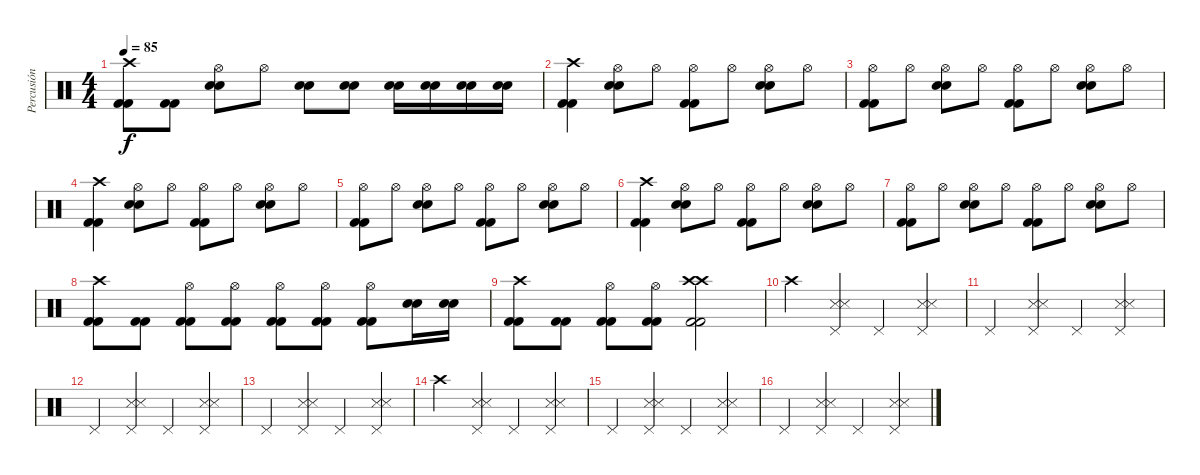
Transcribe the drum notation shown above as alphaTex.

\track ("Percusión" "Percusión") {instrument percussion}
\staff {score}
\articulation defaults
\ts (4 4)
\tempo 85
\clef neutral
\ks c
("Crash high (hit)" "Kick (hit) 2" "Kick (hit) 2").8{dy f} ("Kick (hit) 2" "Kick (hit) 2").8 ("Hi-Hat (open)" "Electric Snare (hit)" "Electric Snare (hit)").8 "Hi-Hat (open)".8 ("Electric Snare (hit)" "Electric Snare (hit)").8 ("Electric Snare (hit)" "Electric Snare (hit)").8 ("Electric Snare (hit)" "Electric Snare (hit)").16 ("Electric Snare (hit)" "Electric Snare (hit)").16 ("Electric Snare (hit)" "Electric Snare (hit)").16 ("Electric Snare (hit)" "Electric Snare (hit)").16 |
("Crash high (hit)" "Kick (hit) 2" "Kick (hit) 2").4 ("Hi-Hat (open)" "Electric Snare (hit)" "Electric Snare (hit)").8 "Hi-Hat (open)".8 ("Hi-Hat (open)" "Kick (hit) 2" "Kick (hit) 2").8 "Hi-Hat (open)".8 ("Hi-Hat (open)" "Electric Snare (hit)" "Electric Snare (hit)").8 "Hi-Hat (open)".8 |
("Hi-Hat (open)" "Kick (hit) 2" "Kick (hit) 2").8 "Hi-Hat (open)".8 ("Hi-Hat (open)" "Electric Snare (hit)" "Electric Snare (hit)").8 "Hi-Hat (open)".8 ("Hi-Hat (open)" "Kick (hit) 2" "Kick (hit) 2").8 "Hi-Hat (open)".8 ("Hi-Hat (open)" "Electric Snare (hit)" "Electric Snare (hit)").8 "Hi-Hat (open)".8 |
("Crash high (hit)" "Kick (hit) 2" "Kick (hit) 2").4 ("Hi-Hat (open)" "Electric Snare (hit)" "Electric Snare (hit)").8 "Hi-Hat (open)".8 ("Hi-Hat (open)" "Kick (hit) 2" "Kick (hit) 2").8 "Hi-Hat (open)".8 ("Hi-Hat (open)" "Electric Snare (hit)" "Electric Snare (hit)").8 "Hi-Hat (open)".8 |
("Hi-Hat (open)" "Kick (hit) 2" "Kick (hit) 2").8 "Hi-Hat (open)".8 ("Hi-Hat (open)" "Electric Snare (hit)" "Electric Snare (hit)").8 "Hi-Hat (open)".8 ("Hi-Hat (open)" "Kick (hit) 2" "Kick (hit) 2").8 "Hi-Hat (open)".8 ("Hi-Hat (open)" "Electric Snare (hit)" "Electric Snare (hit)").8 "Hi-Hat (open)".8 |
("Crash high (hit)" "Kick (hit) 2" "Kick (hit) 2").4 ("Hi-Hat (open)" "Electric Snare (hit)" "Electric Snare (hit)").8 "Hi-Hat (open)".8 ("Hi-Hat (open)" "Kick (hit) 2" "Kick (hit) 2").8 "Hi-Hat (open)".8 ("Hi-Hat (open)" "Electric Snare (hit)" "Electric Snare (hit)").8 "Hi-Hat (open)".8 |
("Hi-Hat (open)" "Kick (hit) 2" "Kick (hit) 2").8 "Hi-Hat (open)".8 ("Hi-Hat (open)" "Electric Snare (hit)" "Electric Snare (hit)").8 "Hi-Hat (open)".8 ("Hi-Hat (open)" "Kick (hit) 2" "Kick (hit) 2").8 "Hi-Hat (open)".8 ("Hi-Hat (open)" "Electric Snare (hit)" "Electric Snare (hit)").8 "Hi-Hat (open)".8 |
("Crash high (hit)" "Kick (hit) 2" "Kick (hit) 2").8 ("Kick (hit) 2" "Kick (hit) 2").8 ("Hi-Hat (open)" "Kick (hit) 2" "Kick (hit) 2").8 ("Hi-Hat (open)" "Kick (hit) 2" "Kick (hit) 2").8 ("Hi-Hat (open)" "Kick (hit) 2" "Kick (hit) 2").8 ("Hi-Hat (open)" "Kick (hit) 2" "Kick (hit) 2").8 ("Hi-Hat (open)" "Kick (hit) 2" "Kick (hit) 2").8 ("Electric Snare (hit)" "Electric Snare (hit)").16 ("Electric Snare (hit)" "Electric Snare (hit)").16 |
("Crash high (hit)" "Kick (hit) 2" "Kick (hit) 2").8 ("Kick (hit) 2" "Kick (hit) 2").8 ("Hi-Hat (open)" "Kick (hit) 2" "Kick (hit) 2").8 ("Hi-Hat (open)" "Kick (hit) 2" "Kick (hit) 2").8 ("Crash high (hit)" "Crash high (hit)" "Kick (hit) 2" "Kick (hit) 2").2 |
"Crash high (hit)".4 ("Pedal Hi-Hat (hit)" "Snare (side stick) 3" "Snare (side stick) 3").4 "Pedal Hi-Hat (hit)".4 ("Pedal Hi-Hat (hit)" "Snare (side stick) 3" "Snare (side stick) 3").4 |
"Pedal Hi-Hat (hit)".4 ("Pedal Hi-Hat (hit)" "Snare (side stick) 3" "Snare (side stick) 3").4 "Pedal Hi-Hat (hit)".4 ("Pedal Hi-Hat (hit)" "Snare (side stick) 3" "Snare (side stick) 3").4 |
"Pedal Hi-Hat (hit)".4 ("Pedal Hi-Hat (hit)" "Snare (side stick) 3" "Snare (side stick) 3").4 "Pedal Hi-Hat (hit)".4 ("Pedal Hi-Hat (hit)" "Snare (side stick) 3" "Snare (side stick) 3").4 |
"Pedal Hi-Hat (hit)".4 ("Pedal Hi-Hat (hit)" "Snare (side stick) 3" "Snare (side stick) 3").4 "Pedal Hi-Hat (hit)".4 ("Pedal Hi-Hat (hit)" "Snare (side stick) 3" "Snare (side stick) 3").4 |
"Crash high (hit)".4 ("Pedal Hi-Hat (hit)" "Snare (side stick) 3" "Snare (side stick) 3").4 "Pedal Hi-Hat (hit)".4 ("Pedal Hi-Hat (hit)" "Snare (side stick) 3" "Snare (side stick) 3").4 |
"Pedal Hi-Hat (hit)".4 ("Pedal Hi-Hat (hit)" "Snare (side stick) 3" "Snare (side stick) 3").4 "Pedal Hi-Hat (hit)".4 ("Pedal Hi-Hat (hit)" "Snare (side stick) 3" "Snare (side stick) 3").4 |
"Pedal Hi-Hat (hit)".4 ("Pedal Hi-Hat (hit)" "Snare (side stick) 3" "Snare (side stick) 3").4 "Pedal Hi-Hat (hit)".4 ("Pedal Hi-Hat (hit)" "Snare (side stick) 3" "Snare (side stick) 3").4
